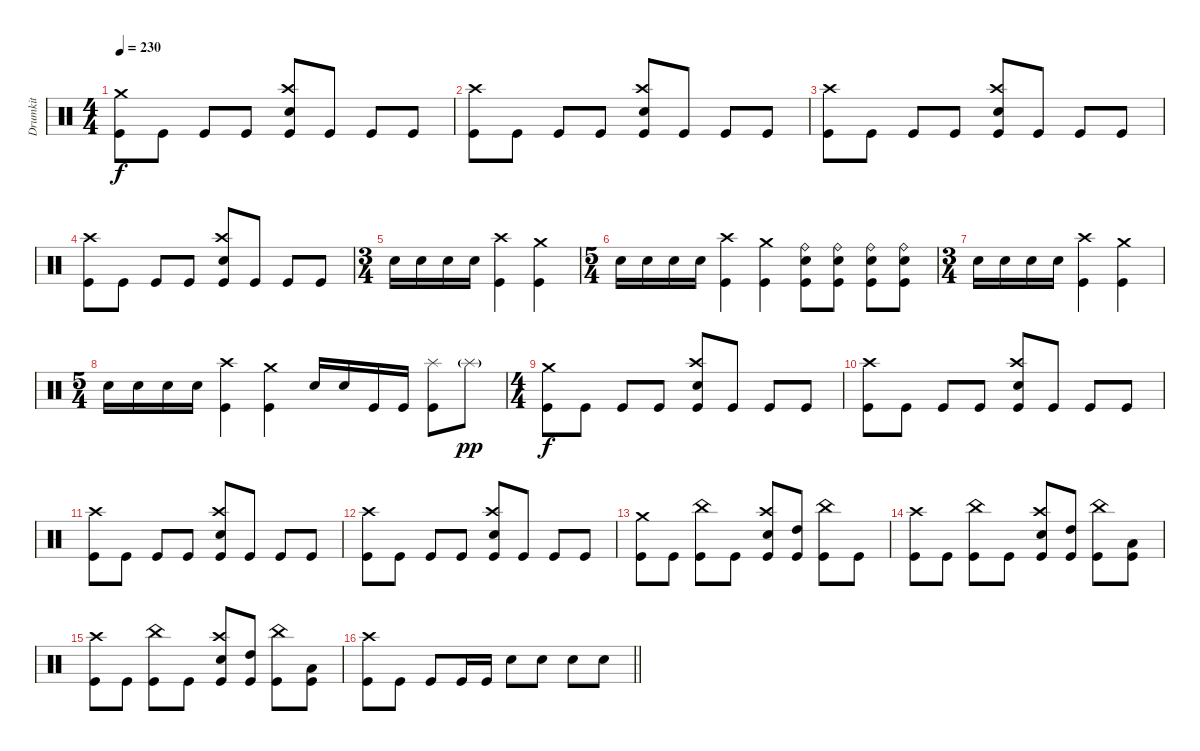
\track ("Drumkit" "Drumkit") {instrument percussion}
\staff {score}
\articulation defaults
\ts (4 4)
\tempo 230
\clef neutral
\ks c
("Crash medium (hit)" "Kick (hit)").8{dy f} "Kick (hit)".8 "Kick (hit)".8 "Kick (hit)".8 ("Crash high (hit)" "Snare (hit) 2" "Kick (hit)").8 "Kick (hit)".8 "Kick (hit)".8 "Kick (hit)".8 |
("Crash high (hit)" "Kick (hit)").8 "Kick (hit)".8 "Kick (hit)".8 "Kick (hit)".8 ("Crash high (hit)" "Snare (hit) 2" "Kick (hit)").8 "Kick (hit)".8 "Kick (hit)".8 "Kick (hit)".8 |
("Crash high (hit)" "Kick (hit)").8 "Kick (hit)".8 "Kick (hit)".8 "Kick (hit)".8 ("Crash high (hit)" "Snare (hit) 2" "Kick (hit)").8 "Kick (hit)".8 "Kick (hit)".8 "Kick (hit)".8 |
("Crash high (hit)" "Kick (hit)").8 "Kick (hit)".8 "Kick (hit)".8 "Kick (hit)".8 ("Crash high (hit)" "Snare (hit) 2" "Kick (hit)").8 "Kick (hit)".8 "Kick (hit)".8 "Kick (hit)".8 |
\ts (3 4)
"Snare (hit) 2".16 "Snare (hit) 2".16 "Snare (hit) 2".16 "Snare (hit) 2".16 ("Crash high (hit)" "Kick (hit)").4 ("Crash medium (hit)" "Kick (hit)").4 |
\ts (5 4)
"Snare (hit) 2".16 "Snare (hit) 2".16 "Snare (hit) 2".16 "Snare (hit) 2".16 ("Crash high (hit)" "Kick (hit)").4 ("Crash medium (hit)" "Kick (hit)").4 ("Ride (bell)" "Snare (hit) 2" "Kick (hit)").8 ("Ride (bell)" "Snare (hit) 2" "Kick (hit)").8 ("Ride (bell)" "Snare (hit) 2" "Kick (hit)").8 ("Ride (bell)" "Snare (hit) 2" "Kick (hit)").8 |
\ts (3 4)
"Snare (hit) 2".16 "Snare (hit) 2".16 "Snare (hit) 2".16 "Snare (hit) 2".16 ("Crash high (hit)" "Kick (hit)").4 ("Crash medium (hit)" "Kick (hit)").4 |
\ts (5 4)
"Snare (hit) 2".16 "Snare (hit) 2".16 "Snare (hit) 2".16 "Snare (hit) 2".16 ("Crash high (hit)" "Kick (hit)").4 ("Crash medium (hit)" "Kick (hit)").4 "Snare (hit) 2".16 "Snare (hit) 2".16 "Kick (hit)".16 "Kick (hit)".16 ("Splash (hit)" "Kick (hit)").8 "Splash (hit)"{g}.8{dy pp} |
\ts (4 4)
("Crash medium (hit)" "Kick (hit)").8{dy f} "Kick (hit)".8 "Kick (hit)".8 "Kick (hit)".8 ("Crash high (hit)" "Snare (hit) 2" "Kick (hit)").8 "Kick (hit)".8 "Kick (hit)".8 "Kick (hit)".8 |
("Crash high (hit)" "Kick (hit)").8 "Kick (hit)".8 "Kick (hit)".8 "Kick (hit)".8 ("Crash high (hit)" "Snare (hit) 2" "Kick (hit)").8 "Kick (hit)".8 "Kick (hit)".8 "Kick (hit)".8 |
("Crash high (hit)" "Kick (hit)").8 "Kick (hit)".8 "Kick (hit)".8 "Kick (hit)".8 ("Crash high (hit)" "Snare (hit) 2" "Kick (hit)").8 "Kick (hit)".8 "Kick (hit)".8 "Kick (hit)".8 |
("Crash high (hit)" "Kick (hit)").8 "Kick (hit)".8 "Kick (hit)".8 "Kick (hit)".8 ("Crash high (hit)" "Snare (hit) 2" "Kick (hit)").8 "Kick (hit)".8 "Kick (hit)".8 "Kick (hit)".8 |
("Crash medium (hit)" "Kick (hit)").8 "Kick (hit)".8 ("China (hit)" "Kick (hit)").8 "Kick (hit)".8 ("Crash high (hit)" "Snare (hit) 2" "Kick (hit)").8 ("High Tom (hit)" "Kick (hit)").8 ("China (hit)" "Kick (hit)").8 "Kick (hit)".8 |
("Crash high (hit)" "Kick (hit)").8 "Kick (hit)".8 ("China (hit)" "Kick (hit)").8 "Kick (hit)".8 ("Crash high (hit)" "Snare (hit) 2" "Kick (hit)").8 ("High Tom (hit)" "Kick (hit)").8 ("China (hit)" "Kick (hit)").8 ("Low Tom (hit)" "Kick (hit)").8 |
("Crash high (hit)" "Kick (hit)").8 "Kick (hit)".8 ("China (hit)" "Kick (hit)").8 "Kick (hit)".8 ("Crash high (hit)" "Snare (hit) 2" "Kick (hit)").8 ("High Tom (hit)" "Kick (hit)").8 ("China (hit)" "Kick (hit)").8 ("Low Tom (hit)" "Kick (hit)").8 |
\barLineRight lightlight
("Crash high (hit)" "Kick (hit)").8 "Kick (hit)".8 "Kick (hit)".8 "Kick (hit)".16 "Kick (hit)".16 "Snare (hit) 2".8 "Snare (hit) 2".8 "Snare (hit) 2".8 "Snare (hit) 2".8
